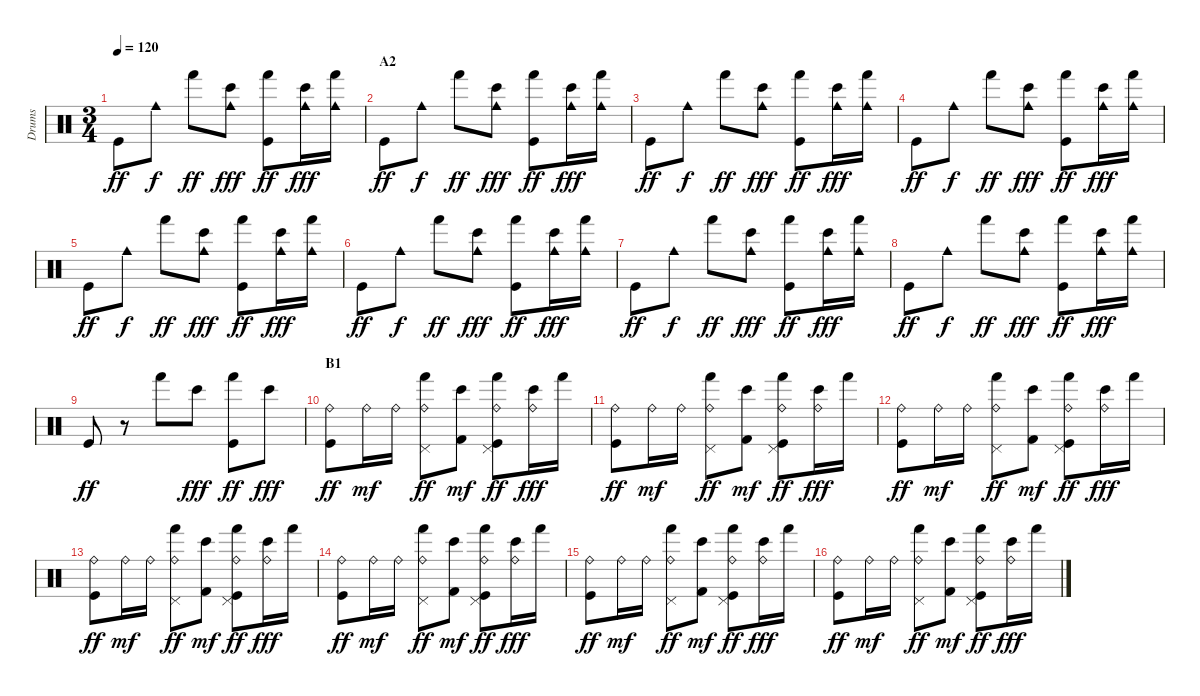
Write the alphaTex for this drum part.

\track ("Drums" "Drums") {instrument percussion}
\staff {score}
\articulation defaults
\ts (3 4)
\tempo 120
\clef neutral
\ks c "Kick (hit)".8{dy ff} "Cowbell medium (hit)".8{dy f} "Hand (hit)".8{dy ff}
("Cowbell medium (hit)" "Bongo High (hit)").8{dy fff} ("Hand (hit)" "Kick (hit)").8{dy ff} ("Cowbell medium (hit)" "Bongo High (hit)").16{dy fff} ("Cowbell medium (hit)" "Hand (hit)").16 |
\section ("" "A2")
"Kick (hit)".8{dy ff} "Cowbell medium (hit)".8{dy f} "Hand (hit)".8{dy ff} ("Cowbell medium (hit)" "Bongo High (hit)").8{dy fff} ("Hand (hit)" "Kick (hit)").8{dy ff} ("Cowbell medium (hit)" "Bongo High (hit)").16{dy fff} ("Cowbell medium (hit)" "Hand (hit)").16 |
"Kick (hit)".8{dy ff} "Cowbell medium (hit)".8{dy f} "Hand (hit)".8{dy ff} ("Cowbell medium (hit)" "Bongo High (hit)").8{dy fff} ("Hand (hit)" "Kick (hit)").8{dy ff} ("Cowbell medium (hit)" "Bongo High (hit)").16{dy fff} ("Cowbell medium (hit)" "Hand (hit)").16 |
"Kick (hit)".8{dy ff} "Cowbell medium (hit)".8{dy f} "Hand (hit)".8{dy ff} ("Cowbell medium (hit)" "Bongo High (hit)").8{dy fff} ("Hand (hit)" "Kick (hit)").8{dy ff} ("Cowbell medium (hit)" "Bongo High (hit)").16{dy fff} ("Cowbell medium (hit)" "Hand (hit)").16 |
"Kick (hit)".8{dy ff} "Cowbell medium (hit)".8{dy f} "Hand (hit)".8{dy ff} ("Cowbell medium (hit)" "Bongo High (hit)").8{dy fff} ("Hand (hit)" "Kick (hit)").8{dy ff} ("Cowbell medium (hit)" "Bongo High (hit)").16{dy fff} ("Cowbell medium (hit)" "Hand (hit)").16 |
"Kick (hit)".8{dy ff} "Cowbell medium (hit)".8{dy f} "Hand (hit)".8{dy ff} ("Cowbell medium (hit)" "Bongo High (hit)").8{dy fff} ("Hand (hit)" "Kick (hit)").8{dy ff} ("Cowbell medium (hit)" "Bongo High (hit)").16{dy fff} ("Cowbell medium (hit)" "Hand (hit)").16 |
"Kick (hit)".8{dy ff} "Cowbell medium (hit)".8{dy f} "Hand (hit)".8{dy ff} ("Cowbell medium (hit)" "Bongo High (hit)").8{dy fff} ("Hand (hit)" "Kick (hit)").8{dy ff} ("Cowbell medium (hit)" "Bongo High (hit)").16{dy fff} ("Cowbell medium (hit)" "Hand (hit)").16 |
"Kick (hit)".8{dy ff} "Cowbell medium (hit)".8{dy f} "Hand (hit)".8{dy ff} ("Cowbell medium (hit)" "Bongo High (hit)").8{dy fff} ("Hand (hit)" "Kick (hit)").8{dy ff} ("Cowbell medium (hit)" "Bongo High (hit)").16{dy fff} ("Cowbell medium (hit)" "Hand (hit)").16 |
"Kick (hit)".8{dy ff} r.8 "Hand (hit)".8 "Bongo High (hit)".8{dy fff} ("Hand (hit)" "Kick (hit)").8{dy ff} "Bongo High (hit)".8{dy fff} |
\section ("" "B1")
("Ride (bell)" "Kick (hit)").8{dy ff} "Ride (bell)".16{dy mf} "Ride (bell)".16 ("Ride (bell)" "Pedal Hi-Hat (hit)" "Hand (hit)").8{dy ff} ("Bongo High (hit)" "Kick (hit) 2").8{dy mf} ("Ride (bell)" "Pedal Hi-Hat (hit)" "Hand (hit)" "Kick (hit)").8{dy ff} ("Ride (bell)" "Bongo High (hit)").16{dy fff} "Hand (hit)".16 |
("Ride (bell)" "Kick (hit)").8{dy ff} "Ride (bell)".16{dy mf} "Ride (bell)".16 ("Ride (bell)" "Pedal Hi-Hat (hit)" "Hand (hit)").8{dy ff} ("Bongo High (hit)" "Kick (hit) 2").8{dy mf} ("Ride (bell)" "Pedal Hi-Hat (hit)" "Hand (hit)" "Kick (hit)").8{dy ff} ("Ride (bell)" "Bongo High (hit)").16{dy fff} "Hand (hit)".16 |
("Ride (bell)" "Kick (hit)").8{dy ff} "Ride (bell)".16{dy mf} "Ride (bell)".16 ("Ride (bell)" "Pedal Hi-Hat (hit)" "Hand (hit)").8{dy ff} ("Bongo High (hit)" "Kick (hit) 2").8{dy mf} ("Ride (bell)" "Pedal Hi-Hat (hit)" "Hand (hit)" "Kick (hit)").8{dy ff} ("Ride (bell)" "Bongo High (hit)").16{dy fff} "Hand (hit)".16 |
("Ride (bell)" "Kick (hit)").8{dy ff} "Ride (bell)".16{dy mf} "Ride (bell)".16 ("Ride (bell)" "Pedal Hi-Hat (hit)" "Hand (hit)").8{dy ff} ("Bongo High (hit)" "Kick (hit) 2").8{dy mf} ("Ride (bell)" "Pedal Hi-Hat (hit)" "Hand (hit)" "Kick (hit)").8{dy ff} ("Ride (bell)" "Bongo High (hit)").16{dy fff} "Hand (hit)".16 |
("Ride (bell)" "Kick (hit)").8{dy ff} "Ride (bell)".16{dy mf} "Ride (bell)".16 ("Ride (bell)" "Pedal Hi-Hat (hit)" "Hand (hit)").8{dy ff} ("Bongo High (hit)" "Kick (hit) 2").8{dy mf} ("Ride (bell)" "Pedal Hi-Hat (hit)" "Hand (hit)" "Kick (hit)").8{dy ff} ("Ride (bell)" "Bongo High (hit)").16{dy fff} "Hand (hit)".16 |
("Ride (bell)" "Kick (hit)").8{dy ff} "Ride (bell)".16{dy mf} "Ride (bell)".16 ("Ride (bell)" "Pedal Hi-Hat (hit)" "Hand (hit)").8{dy ff} ("Bongo High (hit)" "Kick (hit) 2").8{dy mf} ("Ride (bell)" "Pedal Hi-Hat (hit)" "Hand (hit)" "Kick (hit)").8{dy ff} ("Ride (bell)" "Bongo High (hit)").16{dy fff} "Hand (hit)".16 |
("Ride (bell)" "Kick (hit)").8{dy ff} "Ride (bell)".16{dy mf} "Ride (bell)".16 ("Ride (bell)" "Pedal Hi-Hat (hit)" "Hand (hit)").8{dy ff} ("Bongo High (hit)" "Kick (hit) 2").8{dy mf} ("Ride (bell)" "Pedal Hi-Hat (hit)" "Hand (hit)" "Kick (hit)").8{dy ff} ("Ride (bell)" "Bongo High (hit)").16{dy fff} "Hand (hit)".16
